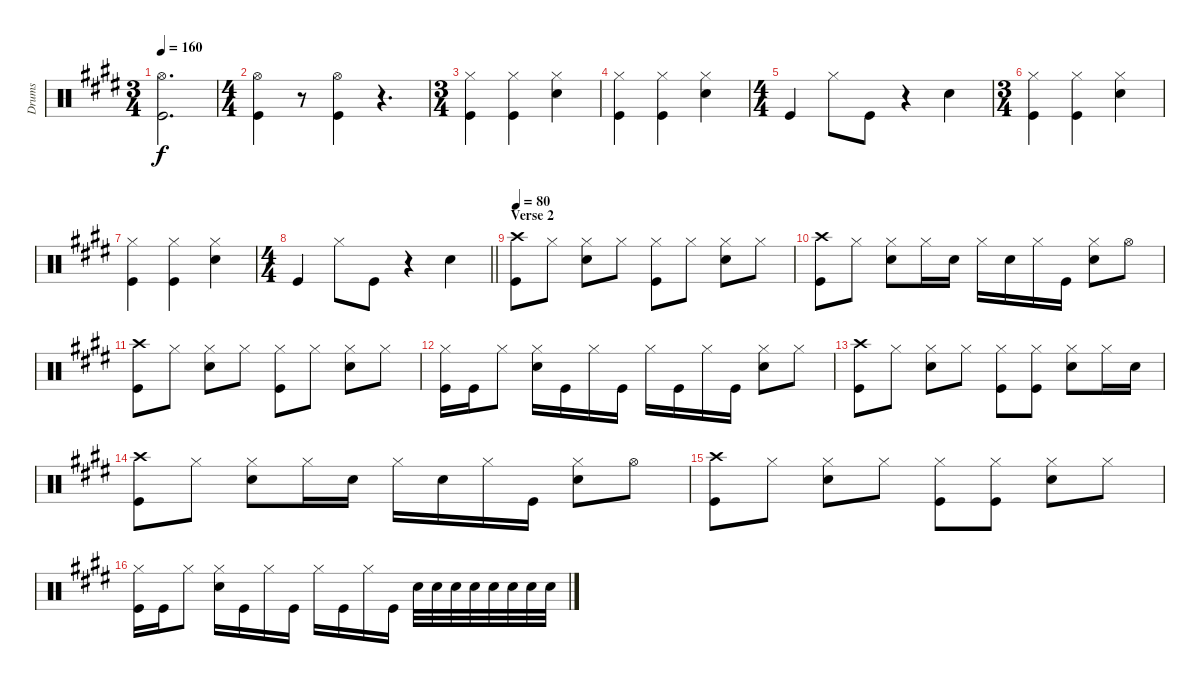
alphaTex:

\track ("Drums" "Drums") {instrument percussion}
\staff {score}
\articulation defaults
\ts (3 4)
\tempo 160
\clef neutral
\ks e
("Hi-Hat (open)" "Kick (hit)").2{d dy f} |
\ts (4 4)
("Hi-Hat (open)" "Kick (hit)").4 r.8 ("Hi-Hat (open)" "Kick (hit)").4 r.4{d} |
\ts (3 4)
("Hi-Hat (closed)" "Kick (hit)").4 ("Hi-Hat (closed)" "Kick (hit)").4 ("Hi-Hat (closed)" "Snare (hit) 2").4 |
("Hi-Hat (closed)" "Kick (hit)").4 ("Hi-Hat (closed)" "Kick (hit)").4 ("Hi-Hat (closed)" "Snare (hit) 2").4 |
\ts (4 4)
"Kick (hit)".4 "Hi-Hat (closed)".8 "Kick (hit)".8 r.4 "Snare (hit) 2".4 |
\ts (3 4)
("Hi-Hat (closed)" "Kick (hit)").4 ("Hi-Hat (closed)" "Kick (hit)").4 ("Hi-Hat (closed)" "Snare (hit) 2").4 |
("Hi-Hat (closed)" "Kick (hit)").4 ("Hi-Hat (closed)" "Kick (hit)").4 ("Hi-Hat (closed)" "Snare (hit) 2").4 |
\ts (4 4)
\barLineRight lightlight "Kick (hit)".4 "Hi-Hat (closed)".8 "Kick (hit)".8
r.4 "Snare (hit) 2".4 |
\section ("" "Verse 2")
\tempo 80
("Crash high (hit)" "Kick (hit)").8 "Hi-Hat (closed)".8 ("Hi-Hat (closed)" "Snare (hit) 2").8 "Hi-Hat (closed)".8 ("Hi-Hat (closed)" "Kick (hit)").8 "Hi-Hat (closed)".8 ("Hi-Hat (closed)" "Snare (hit) 2").8 "Hi-Hat (closed)".8 |
("Crash high (hit)" "Kick (hit)").8 "Hi-Hat (closed)".8 ("Hi-Hat (closed)" "Snare (hit) 2").8 "Hi-Hat (closed)".16 "Snare (hit) 2".16 "Hi-Hat (closed)".16 "Snare (hit) 2".16 "Hi-Hat (closed)".16 "Kick (hit)".16 ("Hi-Hat (closed)" "Snare (hit) 2").8 "Hi-Hat (open)".8 |
("Crash high (hit)" "Kick (hit)").8 "Hi-Hat (closed)".8 ("Hi-Hat (closed)" "Snare (hit) 2").8 "Hi-Hat (closed)".8 ("Hi-Hat (closed)" "Kick (hit)").8 "Hi-Hat (closed)".8 ("Hi-Hat (closed)" "Snare (hit) 2").8 "Hi-Hat (closed)".8 |
("Hi-Hat (closed)" "Kick (hit)").16 "Kick (hit)".16 "Hi-Hat (closed)".8 ("Hi-Hat (closed)" "Snare (hit) 2").16 "Kick (hit)".16 "Hi-Hat (closed)".16 "Kick (hit)".16 "Hi-Hat (closed)".16 "Kick (hit)".16 "Hi-Hat (closed)".16 "Kick (hit)".16 ("Hi-Hat (closed)" "Snare (hit) 2").8 "Hi-Hat (closed)".8 |
("Crash high (hit)" "Kick (hit)").8 "Hi-Hat (closed)".8 ("Hi-Hat (closed)" "Snare (hit) 2").8 "Hi-Hat (closed)".8 ("Hi-Hat (closed)" "Kick (hit)").8 ("Hi-Hat (closed)" "Kick (hit)").8 ("Hi-Hat (closed)" "Snare (hit) 2").8 "Hi-Hat (closed)".16 "Snare (hit) 2".16 |
("Crash high (hit)" "Kick (hit)").8 "Hi-Hat (closed)".8 ("Hi-Hat (closed)" "Snare (hit) 2").8 "Hi-Hat (closed)".16 "Snare (hit) 2".16 "Hi-Hat (closed)".16 "Snare (hit) 2".16 "Hi-Hat (closed)".16 "Kick (hit)".16 ("Hi-Hat (closed)" "Snare (hit) 2").8 "Hi-Hat (open)".8 |
("Crash high (hit)" "Kick (hit)").8 "Hi-Hat (closed)".8 ("Hi-Hat (closed)" "Snare (hit) 2").8 "Hi-Hat (closed)".8 ("Hi-Hat (closed)" "Kick (hit)").8 ("Hi-Hat (closed)" "Kick (hit)").8 ("Hi-Hat (closed)" "Snare (hit) 2").8 "Hi-Hat (closed)".8 |
("Hi-Hat (closed)" "Kick (hit)").16 "Kick (hit)".16 "Hi-Hat (closed)".8 ("Hi-Hat (closed)" "Snare (hit) 2").16 "Kick (hit)".16 "Hi-Hat (closed)".16 "Kick (hit)".16 "Hi-Hat (closed)".16 "Kick (hit)".16 "Hi-Hat (closed)".16 "Kick (hit)".16 "Snare (hit) 2".32 "Snare (hit) 2".32 "Snare (hit) 2".32 "Snare (hit) 2".32 "Snare (hit) 2".32 "Snare (hit) 2".32 "Snare (hit) 2".32 "Snare (hit) 2".32
